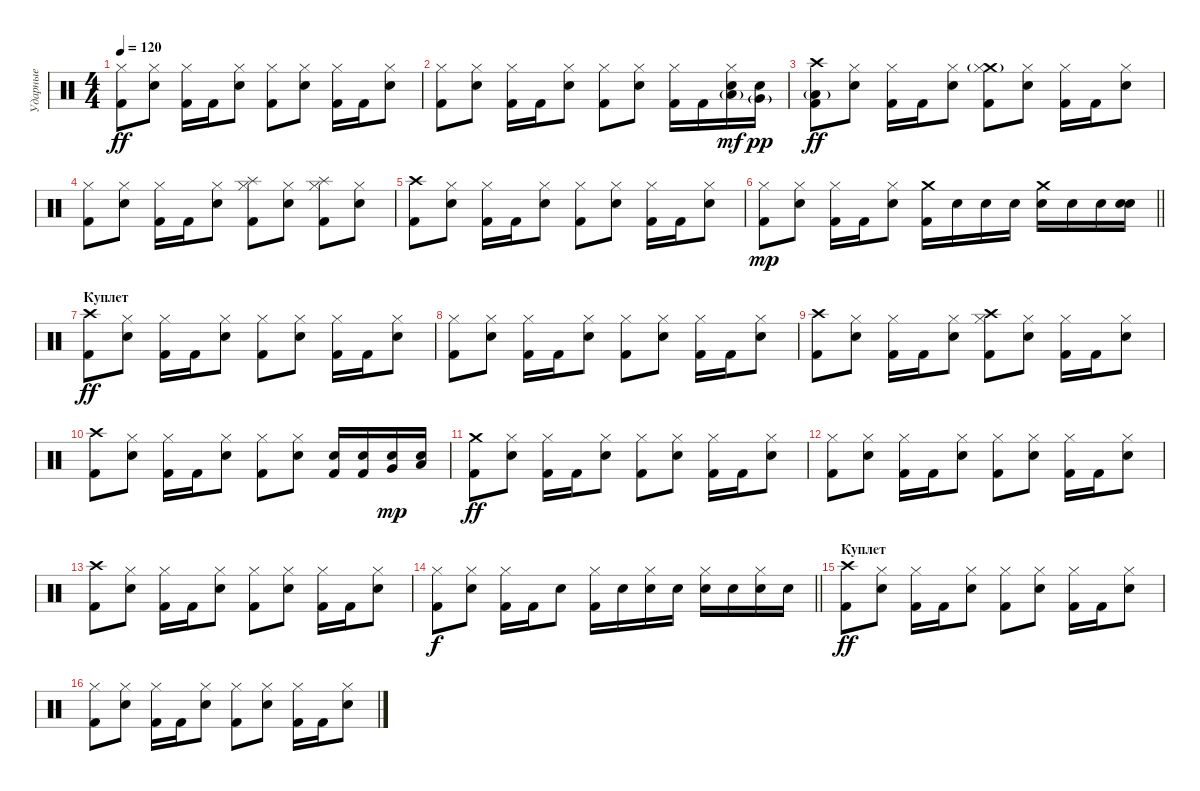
\track ("Ударные" "Ударные") {instrument percussion}
\staff {score}
\articulation defaults
\ts (4 4)
\tempo 120
\clef neutral
\ks c
("Hi-Hat (closed)" "Kick (hit) 2").8{dy ff} ("Hi-Hat (closed)" "Electric Snare (hit)").8 ("Hi-Hat (closed)" "Kick (hit) 2").16 "Kick (hit) 2".16 ("Hi-Hat (closed)" "Electric Snare (hit)").8 ("Hi-Hat (closed)" "Kick (hit) 2").8 ("Hi-Hat (closed)" "Electric Snare (hit)").8 ("Hi-Hat (closed)" "Kick (hit) 2").16 "Kick (hit) 2".16 ("Hi-Hat (closed)" "Electric Snare (hit)").8 |
("Hi-Hat (closed)" "Kick (hit) 2").8 ("Hi-Hat (closed)" "Electric Snare (hit)").8 ("Hi-Hat (closed)" "Kick (hit) 2").16 "Kick (hit) 2".16 ("Hi-Hat (closed)" "Electric Snare (hit)").8 ("Hi-Hat (closed)" "Kick (hit) 2").8 ("Hi-Hat (closed)" "Electric Snare (hit)").8 ("Hi-Hat (closed)" "Kick (hit) 2").16 "Kick (hit) 2".16 ("Hi-Hat (closed)" "Electric Snare (hit)" "Low Floor Tom (hit)"{g}).16{dy mf} ("Electric Snare (hit)" "Very Low Tom (hit)"{g}).16{dy pp} |
("Crash high (hit)" "Low Floor Tom (hit)"{g} "Kick (hit) 2").8{dy ff} ("Hi-Hat (closed)" "Electric Snare (hit)").8 ("Hi-Hat (closed)" "Kick (hit) 2").16 "Kick (hit) 2".16 ("Hi-Hat (closed)" "Electric Snare (hit)").8 ("Crash medium (hit)"{g} "Hi-Hat (closed)" "Kick (hit) 2").8 ("Hi-Hat (closed)" "Electric Snare (hit)").8 ("Hi-Hat (closed)" "Kick (hit) 2").16 "Kick (hit) 2".16 ("Hi-Hat (closed)" "Electric Snare (hit)").8 |
("Hi-Hat (closed)" "Kick (hit) 2").8 ("Hi-Hat (closed)" "Electric Snare (hit)").8 ("Hi-Hat (closed)" "Kick (hit) 2").16 "Kick (hit) 2".16 ("Hi-Hat (closed)" "Electric Snare (hit)").8 ("Splash (hit)" "Hi-Hat (closed)" "Kick (hit) 2").8 ("Hi-Hat (closed)" "Electric Snare (hit)").8 ("Splash (hit)" "Hi-Hat (closed)" "Kick (hit) 2").8 ("Hi-Hat (closed)" "Electric Snare (hit)").8 |
("Crash high (hit)" "Kick (hit) 2").8 ("Hi-Hat (closed)" "Electric Snare (hit)").8 ("Hi-Hat (closed)" "Kick (hit) 2").16 "Kick (hit) 2".16 ("Hi-Hat (closed)" "Electric Snare (hit)").8 ("Hi-Hat (closed)" "Kick (hit) 2").8 ("Hi-Hat (closed)" "Electric Snare (hit)").8 ("Hi-Hat (closed)" "Kick (hit) 2").16 "Kick (hit) 2".16 ("Hi-Hat (closed)" "Electric Snare (hit)").8 |
\barLineRight lightlight
("Hi-Hat (closed)" "Kick (hit) 2").8{dy mp} ("Hi-Hat (closed)" "Electric Snare (hit)").8 ("Hi-Hat (closed)" "Kick (hit) 2").16 "Kick (hit) 2".16 ("Hi-Hat (closed)" "Electric Snare (hit)").8 ("Crash medium (hit)" "Kick (hit) 2").16 "Snare (hit) 2".16 "Electric Snare (hit)".16 "Electric Snare (hit)".16 ("Crash medium (hit)" "Snare (hit) 2").16 "Snare (hit) 2".16 "Snare (hit) 2".16 ("Snare (hit) 2" "Snare (hit) 2").16 |
\section ("" "Куплет")
("Crash high (hit)" "Kick (hit) 2").8{dy ff} ("Hi-Hat (closed)" "Electric Snare (hit)").8 ("Hi-Hat (closed)" "Kick (hit) 2").16 "Kick (hit) 2".16 ("Hi-Hat (closed)" "Electric Snare (hit)").8 ("Hi-Hat (closed)" "Kick (hit) 2").8 ("Hi-Hat (closed)" "Electric Snare (hit)").8 ("Hi-Hat (closed)" "Kick (hit) 2").16 "Kick (hit) 2".16 ("Hi-Hat (closed)" "Electric Snare (hit)").8 |
("Hi-Hat (closed)" "Kick (hit) 2").8 ("Hi-Hat (closed)" "Electric Snare (hit)").8 ("Hi-Hat (closed)" "Kick (hit) 2").16 "Kick (hit) 2".16 ("Hi-Hat (closed)" "Electric Snare (hit)").8 ("Hi-Hat (closed)" "Kick (hit) 2").8 ("Hi-Hat (closed)" "Electric Snare (hit)").8 ("Hi-Hat (closed)" "Kick (hit) 2").16 "Kick (hit) 2".16 ("Hi-Hat (closed)" "Electric Snare (hit)").8 |
("Crash high (hit)" "Kick (hit) 2").8 ("Hi-Hat (closed)" "Electric Snare (hit)").8 ("Hi-Hat (closed)" "Kick (hit) 2").16 "Kick (hit) 2".16 ("Hi-Hat (closed)" "Electric Snare (hit)").8 ("Crash high (hit)" "Hi-Hat (closed)" "Kick (hit) 2").8 ("Hi-Hat (closed)" "Electric Snare (hit)").8 ("Hi-Hat (closed)" "Kick (hit) 2").16 "Kick (hit) 2".16 ("Hi-Hat (closed)" "Electric Snare (hit)").8 |
("Crash high (hit)" "Kick (hit) 2").8 ("Hi-Hat (closed)" "Electric Snare (hit)").8 ("Hi-Hat (closed)" "Kick (hit) 2").16 "Kick (hit) 2".16 ("Hi-Hat (closed)" "Electric Snare (hit)").8 ("Hi-Hat (closed)" "Kick (hit) 2").8 ("Hi-Hat (closed)" "Electric Snare (hit)").8 ("Snare (hit) 2" "Kick (hit) 2").16 ("Snare (hit) 2" "Kick (hit) 2").16 ("Snare (hit) 2" "Very Low Tom (hit)").16{dy mp} ("Snare (hit) 2" "Low Floor Tom (hit)").16 |
("Crash medium (hit)" "Kick (hit) 2").8{dy ff} ("Hi-Hat (closed)" "Electric Snare (hit)").8 ("Hi-Hat (closed)" "Kick (hit) 2").16 "Kick (hit) 2".16 ("Hi-Hat (closed)" "Electric Snare (hit)").8 ("Hi-Hat (closed)" "Kick (hit) 2").8 ("Hi-Hat (closed)" "Electric Snare (hit)").8 ("Hi-Hat (closed)" "Kick (hit) 2").16 "Kick (hit) 2".16 ("Hi-Hat (closed)" "Electric Snare (hit)").8 |
("Hi-Hat (closed)" "Kick (hit) 2").8 ("Hi-Hat (closed)" "Electric Snare (hit)").8 ("Hi-Hat (closed)" "Kick (hit) 2").16 "Kick (hit) 2".16 ("Hi-Hat (closed)" "Electric Snare (hit)").8 ("Hi-Hat (closed)" "Kick (hit) 2").8 ("Hi-Hat (closed)" "Electric Snare (hit)").8 ("Hi-Hat (closed)" "Kick (hit) 2").16 "Kick (hit) 2".16 ("Hi-Hat (closed)" "Electric Snare (hit)").8 |
("Crash high (hit)" "Kick (hit) 2").8 ("Hi-Hat (closed)" "Electric Snare (hit)").8 ("Hi-Hat (closed)" "Kick (hit) 2").16 "Kick (hit) 2".16 ("Hi-Hat (closed)" "Electric Snare (hit)").8 ("Hi-Hat (closed)" "Kick (hit) 2").8 ("Hi-Hat (closed)" "Electric Snare (hit)").8 ("Hi-Hat (closed)" "Kick (hit) 2").16 "Kick (hit) 2".16 ("Hi-Hat (closed)" "Electric Snare (hit)").8 |
\barLineRight lightlight
("Hi-Hat (closed)" "Kick (hit) 2").8{dy f} ("Hi-Hat (closed)" "Electric Snare (hit)").8 ("Hi-Hat (closed)" "Kick (hit) 2").16 "Kick (hit) 2".16 "Electric Snare (hit)".8 ("Hi-Hat (closed)" "Kick (hit) 2").16 "Snare (hit) 2".16 ("Hi-Hat (closed)" "Electric Snare (hit)").16 "Electric Snare (hit)".16 ("Hi-Hat (closed)" "Snare (hit) 2").16 "Snare (hit) 2".16 ("Hi-Hat (closed)" "Snare (hit) 2").16 "Snare (hit) 2".16 |
\section ("" "Куплет")
("Crash high (hit)" "Kick (hit) 2").8{dy ff} ("Hi-Hat (closed)" "Electric Snare (hit)").8 ("Hi-Hat (closed)" "Kick (hit) 2").16 "Kick (hit) 2".16 ("Hi-Hat (closed)" "Electric Snare (hit)").8 ("Hi-Hat (closed)" "Kick (hit) 2").8 ("Hi-Hat (closed)" "Electric Snare (hit)").8 ("Hi-Hat (closed)" "Kick (hit) 2").16 "Kick (hit) 2".16 ("Hi-Hat (closed)" "Electric Snare (hit)").8 |
("Hi-Hat (closed)" "Kick (hit) 2").8 ("Hi-Hat (closed)" "Electric Snare (hit)").8 ("Hi-Hat (closed)" "Kick (hit) 2").16 "Kick (hit) 2".16 ("Hi-Hat (closed)" "Electric Snare (hit)").8 ("Hi-Hat (closed)" "Kick (hit) 2").8 ("Hi-Hat (closed)" "Electric Snare (hit)").8 ("Hi-Hat (closed)" "Kick (hit) 2").16 "Kick (hit) 2".16 ("Hi-Hat (closed)" "Electric Snare (hit)").8
